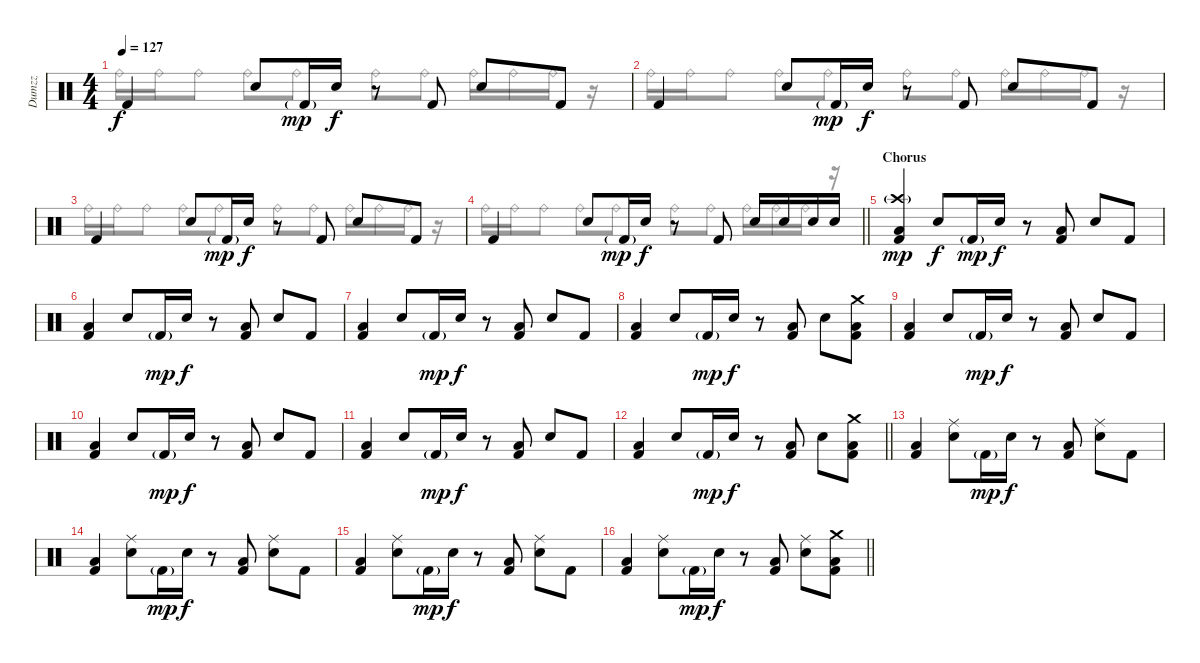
\track ("Dumzz" "Dumzz") {instrument percussion}
\staff {score}
\articulation defaults
\voice
\ts (4 4)
\tempo 127
\clef neutral
\ks c "Kick (hit) 2".4{dy f} "Snare (hit) 2".8 "Kick (hit) 2"{g}.16{dy mp} "Snare (hit) 2".16{dy f}
r.8 "Kick (hit) 2".8 "Snare (hit) 2".8 "Kick (hit) 2".8 |
"Kick (hit) 2".4 "Snare (hit) 2".8 "Kick (hit) 2"{g}.16{dy mp} "Snare (hit) 2".16{dy f} r.8 "Kick (hit) 2".8 "Snare (hit) 2".8 "Kick (hit) 2".8 |
"Kick (hit) 2".4 "Snare (hit) 2".8 "Kick (hit) 2"{g}.16{dy mp} "Snare (hit) 2".16{dy f} r.8 "Kick (hit) 2".8 "Snare (hit) 2".8 "Kick (hit) 2".8 |
\barLineRight lightlight "Kick (hit) 2".4 "Snare (hit) 2".8 "Kick (hit) 2"{g}.16{dy mp} "Snare (hit) 2".16{dy f}
r.8 "Kick (hit) 2".8 "Snare (hit) 2".16 "Snare (hit) 2".16 "Snare (hit) 2".16 "Snare (hit) 2".16 |
\section ("" "Chorus")
("Crash high (hit)"{g} "Low Tom (hit)" "Kick (hit) 2").4{dy mp} "Snare (hit) 2".8{dy f} "Kick (hit) 2"{g}.16{dy mp} "Snare (hit) 2".16{dy f} r.8 ("Low Tom (hit)" "Kick (hit) 2").8 "Snare (hit) 2".8 "Kick (hit) 2".8 |
("Low Tom (hit)" "Kick (hit) 2").4 "Snare (hit) 2".8 "Kick (hit) 2"{g}.16{dy mp} "Snare (hit) 2".16{dy f} r.8 ("Low Tom (hit)" "Kick (hit) 2").8 "Snare (hit) 2".8 "Kick (hit) 2".8 |
("Low Tom (hit)" "Kick (hit) 2").4 "Snare (hit) 2".8 "Kick (hit) 2"{g}.16{dy mp} "Snare (hit) 2".16{dy f} r.8 ("Low Tom (hit)" "Kick (hit) 2").8 "Snare (hit) 2".8 "Kick (hit) 2".8 |
("Low Tom (hit)" "Kick (hit) 2").4 "Snare (hit) 2".8 "Kick (hit) 2"{g}.16{dy mp} "Snare (hit) 2".16{dy f} r.8 ("Low Tom (hit)" "Kick (hit) 2").8 "Snare (hit) 2".8 ("Crash medium (hit)" "Low Tom (hit)" "Kick (hit) 2").8 |
("Low Tom (hit)" "Kick (hit) 2").4 "Snare (hit) 2".8 "Kick (hit) 2"{g}.16{dy mp} "Snare (hit) 2".16{dy f} r.8 ("Low Tom (hit)" "Kick (hit) 2").8 "Snare (hit) 2".8 "Kick (hit) 2".8 |
("Low Tom (hit)" "Kick (hit) 2").4 "Snare (hit) 2".8 "Kick (hit) 2"{g}.16{dy mp} "Snare (hit) 2".16{dy f} r.8 ("Low Tom (hit)" "Kick (hit) 2").8 "Snare (hit) 2".8 "Kick (hit) 2".8 |
("Low Tom (hit)" "Kick (hit) 2").4 "Snare (hit) 2".8 "Kick (hit) 2"{g}.16{dy mp} "Snare (hit) 2".16{dy f} r.8 ("Low Tom (hit)" "Kick (hit) 2").8 "Snare (hit) 2".8 "Kick (hit) 2".8 |
\barLineRight lightlight
("Low Tom (hit)" "Kick (hit) 2").4 "Snare (hit) 2".8 "Kick (hit) 2"{g}.16{dy mp} "Snare (hit) 2".16{dy f} r.8 ("Low Tom (hit)" "Kick (hit) 2").8 "Snare (hit) 2".8 ("Crash medium (hit)" "Low Tom (hit)" "Kick (hit) 2").8 |
("Low Tom (hit)" "Kick (hit) 2").4 ("Ride (middle)" "Snare (hit) 2").8 "Kick (hit) 2"{g}.16{dy mp} "Snare (hit) 2".16{dy f} r.8 ("Low Tom (hit)" "Kick (hit) 2").8 ("Ride (middle)" "Snare (hit) 2").8 "Kick (hit) 2".8 |
("Low Tom (hit)" "Kick (hit) 2").4 ("Ride (middle)" "Snare (hit) 2").8 "Kick (hit) 2"{g}.16{dy mp} "Snare (hit) 2".16{dy f} r.8 ("Low Tom (hit)" "Kick (hit) 2").8 ("Ride (middle)" "Snare (hit) 2").8 "Kick (hit) 2".8 |
("Low Tom (hit)" "Kick (hit) 2").4 ("Ride (middle)" "Snare (hit) 2").8 "Kick (hit) 2"{g}.16{dy mp} "Snare (hit) 2".16{dy f} r.8 ("Low Tom (hit)" "Kick (hit) 2").8 ("Ride (middle)" "Snare (hit) 2").8 "Kick (hit) 2".8 |
\barLineRight lightlight
("Low Tom (hit)" "Kick (hit) 2").4 ("Ride (middle)" "Snare (hit) 2").8 "Kick (hit) 2"{g}.16{dy mp} "Snare (hit) 2".16{dy f} r.8 ("Low Tom (hit)" "Kick (hit) 2").8 ("Ride (middle)" "Snare (hit) 2").8 ("Crash medium (hit)" "Low Tom (hit)" "Kick (hit) 2").8
\voice
\clef neutral
\ottava regular
\simile none
\ks c "Ride (bell)".16{dy f} "Ride (bell)".16 "Ride (bell)".8 "Ride (bell)".8 "Ride (bell)".8 "Ride (bell)".8 "Ride (bell)".8 "Ride (bell)".16 "Ride (bell)".16 "Ride (bell)".16
r.16 |
"Ride (bell)".16 "Ride (bell)".16 "Ride (bell)".8 "Ride (bell)".8 "Ride (bell)".8 "Ride (bell)".8 "Ride (bell)".8 "Ride (bell)".16 "Ride (bell)".16 "Ride (bell)".16 r.16 |
"Ride (bell)".16 "Ride (bell)".16 "Ride (bell)".8 "Ride (bell)".8 "Ride (bell)".8 "Ride (bell)".8 "Ride (bell)".8 "Ride (bell)".16 "Ride (bell)".16 "Ride (bell)".16 r.16 |
\barLineRight lightlight "Ride (bell)".16 "Ride (bell)".16 "Ride (bell)".8 "Ride (bell)".8 "Ride (bell)".8 "Ride (bell)".8 "Ride (bell)".8 "Ride (bell)".16 "Ride (bell)".16 "Ride (bell)".16
r.16 |
|
|
|
|
|
|
|
\barLineRight lightlight
|
|
|
|
\barLineRight lightlight
